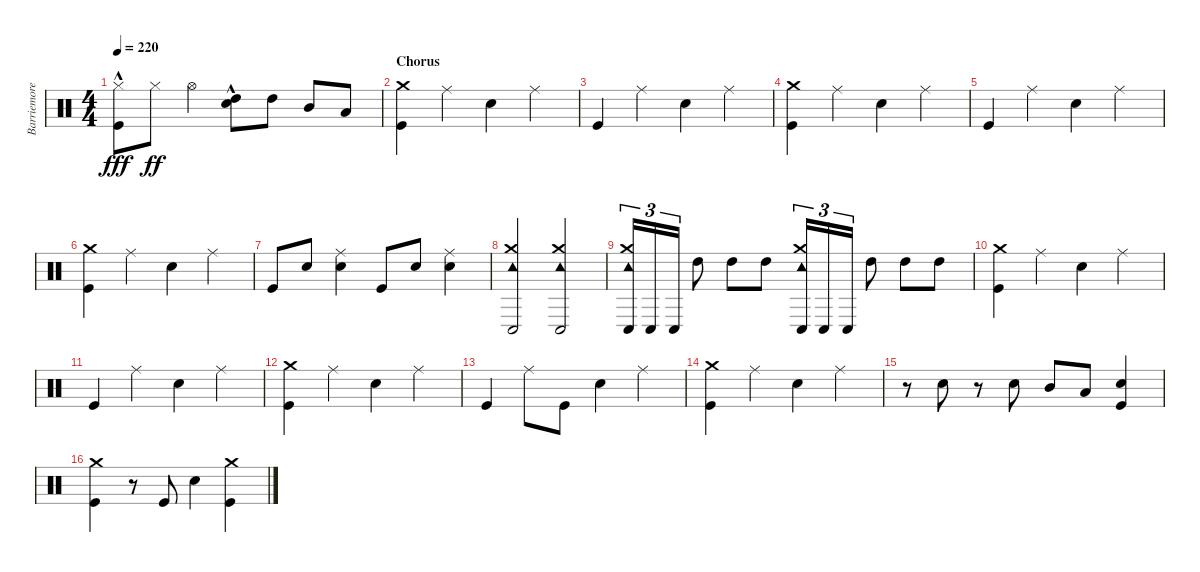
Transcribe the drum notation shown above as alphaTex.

\track ("Barriemore Barlow (Drums)" "Barriemore") {instrument percussion}
\staff {score}
\articulation defaults
\ts (4 4)
\tempo 220
\clef neutral
\ks c
("Kick (hit)"{hac} "Hi-Hat (closed)").8{dy fff} "Hi-Hat (closed)".8{dy ff} "Hi-Hat (open)".4 ("Snare (hit) 2"{hac} "High Tom (hit)").8 "High Tom (hit)".8 "Mid Tom (hit)".8 "Low Tom (hit)".8 |
\section ("" "Chorus")
("Kick (hit)" "Crash medium (hit)").4 "Ride (middle)".4 "Snare (hit) 2".4 "Ride (middle)".4 |
"Kick (hit)".4 "Ride (middle)".4 "Snare (hit) 2".4 "Ride (middle)".4 |
("Kick (hit)" "Crash medium (hit)").4 "Ride (middle)".4 "Snare (hit) 2".4 "Ride (middle)".4 |
"Kick (hit)".4 "Ride (middle)".4 "Snare (hit) 2".4 "Ride (middle)".4 |
("Kick (hit)" "Crash medium (hit)").4 "Ride (middle)".4 "Snare (hit) 2".4 "Ride (middle)".4 |
"Kick (hit)".8 "Snare (hit) 2".8 ("Snare (hit) 2" "Ride (middle)").4 "Kick (hit)".8 "Snare (hit) 2".8 ("Snare (hit) 2" "Ride (middle)").4 |
("Tambourine (hit)" "Crash medium (hit)" "Conga low (hit)").2 ("Tambourine (hit)" "Crash medium (hit)" "Conga low (hit)").2 |
("Tambourine (hit)" "Crash medium (hit)" "Conga low (hit)").16{tu (3 2)} "Conga low (hit)".16{tu (3 2)} "Conga low (hit)".16{tu (3 2)} "High Tom (hit)".8 "High Tom (hit)".8 "High Tom (hit)".8 ("Tambourine (hit)" "Crash medium (hit)" "Conga low (hit)").16{tu (3 2)} "Conga low (hit)".16{tu (3 2)} "Conga low (hit)".16{tu (3 2)} "High Tom (hit)".8 "High Tom (hit)".8 "High Tom (hit)".8 |
("Kick (hit)" "Crash medium (hit)").4 "Ride (middle)".4 "Snare (hit) 2".4 "Ride (middle)".4 |
"Kick (hit)".4 "Ride (middle)".4 "Snare (hit) 2".4 "Ride (middle)".4 |
("Kick (hit)" "Crash medium (hit)").4 "Ride (middle)".4 "Snare (hit) 2".4 "Ride (middle)".4 |
"Kick (hit)".4 "Ride (middle)".8 "Kick (hit)".8 "Snare (hit) 2".4 "Ride (middle)".4 |
("Kick (hit)" "Crash medium (hit)").4 "Ride (middle)".4 "Snare (hit) 2".4 "Ride (middle)".4 |
r.8 "Snare (hit) 2".8 r.8 "Snare (hit) 2".8 "Mid Tom (hit)".8 "Low Tom (hit)".8 ("Kick (hit)" "Snare (hit) 2").4 |
("Kick (hit)" "Crash medium (hit)").4 r.8 "Kick (hit)".8 "Snare (hit) 2".4 ("Kick (hit)" "Crash medium (hit)").4
